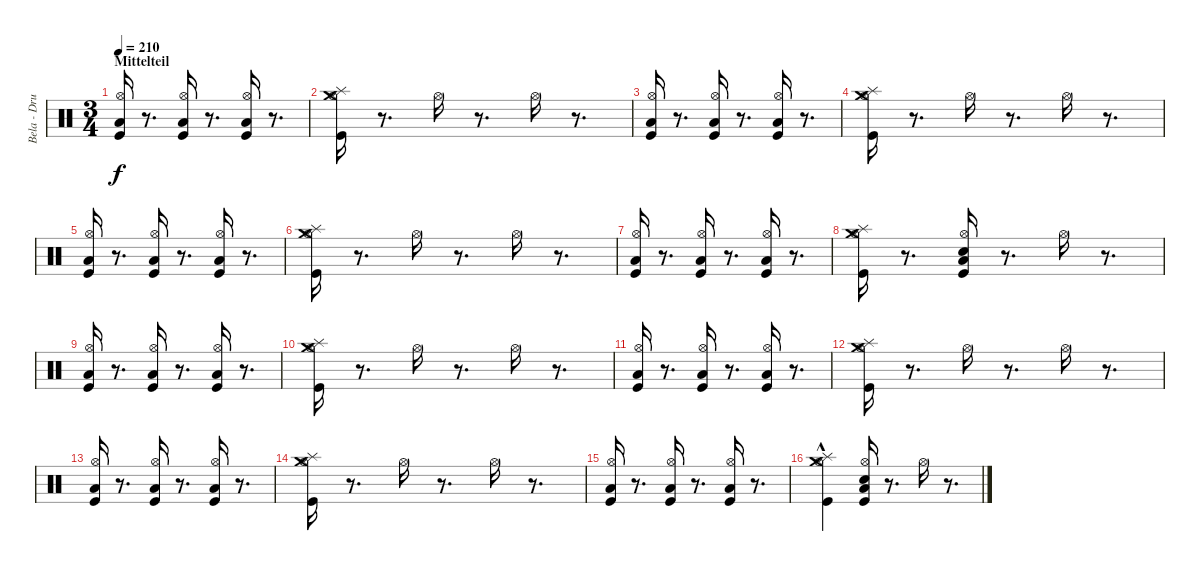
\track ("Bela - Drums" "Bela - Dru") {instrument percussion}
\staff {score}
\articulation defaults
\ts (3 4)
\section ("" "Mittelteil")
\tempo 210
\clef neutral
\ks c
("Kick (hit)" "Hi-Hat (open)" "Low Floor Tom (hit)").16{dy f} r.8{d} ("Kick (hit)" "Hi-Hat (open)" "Low Floor Tom (hit)").16 r.8{d} ("Kick (hit)" "Hi-Hat (open)" "Low Floor Tom (hit)").16 r.8{d} |
("Kick (hit)" "Hi-Hat (open)" "Splash (hit)" "Crash medium (hit)").16 r.8{d} "Hi-Hat (open)".16 r.8{d} "Hi-Hat (open)".16 r.8{d} |
("Kick (hit)" "Hi-Hat (open)" "Low Floor Tom (hit)").16 r.8{d} ("Kick (hit)" "Hi-Hat (open)" "Low Floor Tom (hit)").16 r.8{d} ("Kick (hit)" "Hi-Hat (open)" "Low Floor Tom (hit)").16 r.8{d} |
("Kick (hit)" "Hi-Hat (open)" "Splash (hit)" "Crash medium (hit)").16 r.8{d} "Hi-Hat (open)".16 r.8{d} "Hi-Hat (open)".16 r.8{d} |
("Kick (hit)" "Hi-Hat (open)" "Low Floor Tom (hit)").16 r.8{d} ("Kick (hit)" "Hi-Hat (open)" "Low Floor Tom (hit)").16 r.8{d} ("Kick (hit)" "Hi-Hat (open)" "Low Floor Tom (hit)").16 r.8{d} |
("Kick (hit)" "Hi-Hat (open)" "Splash (hit)" "Crash medium (hit)").16 r.8{d} "Hi-Hat (open)".16 r.8{d} "Hi-Hat (open)".16 r.8{d} |
("Kick (hit)" "Hi-Hat (open)" "Low Floor Tom (hit)").16 r.8{d} ("Kick (hit)" "Hi-Hat (open)" "Low Floor Tom (hit)").16 r.8{d} ("Kick (hit)" "Hi-Hat (open)" "Low Floor Tom (hit)").16 r.8{d} |
("Kick (hit)" "Hi-Hat (open)" "Splash (hit)" "Crash medium (hit)").16 r.8{d} ("Kick (hit)" "Low Floor Tom (hit)" "Electric Snare (hit)" "Hi-Hat (open)").16 r.8{d} "Hi-Hat (open)".16 r.8{d} |
("Kick (hit)" "Hi-Hat (open)" "Low Floor Tom (hit)").16 r.8{d} ("Kick (hit)" "Hi-Hat (open)" "Low Floor Tom (hit)").16 r.8{d} ("Kick (hit)" "Hi-Hat (open)" "Low Floor Tom (hit)").16 r.8{d} |
("Kick (hit)" "Hi-Hat (open)" "Splash (hit)" "Crash medium (hit)").16 r.8{d} "Hi-Hat (open)".16 r.8{d} "Hi-Hat (open)".16 r.8{d} |
("Kick (hit)" "Hi-Hat (open)" "Low Floor Tom (hit)").16 r.8{d} ("Kick (hit)" "Hi-Hat (open)" "Low Floor Tom (hit)").16 r.8{d} ("Kick (hit)" "Hi-Hat (open)" "Low Floor Tom (hit)").16 r.8{d} |
("Kick (hit)" "Hi-Hat (open)" "Splash (hit)" "Crash medium (hit)").16 r.8{d} "Hi-Hat (open)".16 r.8{d} "Hi-Hat (open)".16 r.8{d} |
("Kick (hit)" "Hi-Hat (open)" "Low Floor Tom (hit)").16 r.8{d} ("Kick (hit)" "Hi-Hat (open)" "Low Floor Tom (hit)").16 r.8{d} ("Kick (hit)" "Hi-Hat (open)" "Low Floor Tom (hit)").16 r.8{d} |
("Kick (hit)" "Hi-Hat (open)" "Splash (hit)" "Crash medium (hit)").16 r.8{d} "Hi-Hat (open)".16 r.8{d} "Hi-Hat (open)".16 r.8{d} |
("Kick (hit)" "Hi-Hat (open)" "Low Floor Tom (hit)").16 r.8{d} ("Kick (hit)" "Hi-Hat (open)" "Low Floor Tom (hit)").16 r.8{d} ("Kick (hit)" "Hi-Hat (open)" "Low Floor Tom (hit)").16 r.8{d} |
("Kick (hit)" "Hi-Hat (open)" "Splash (hit)" "Crash medium (hit)"{hac}).4 ("Kick (hit)" "Low Floor Tom (hit)" "Electric Snare (hit)" "Hi-Hat (open)").16 r.8{d} "Hi-Hat (open)".16 r.8{d}
